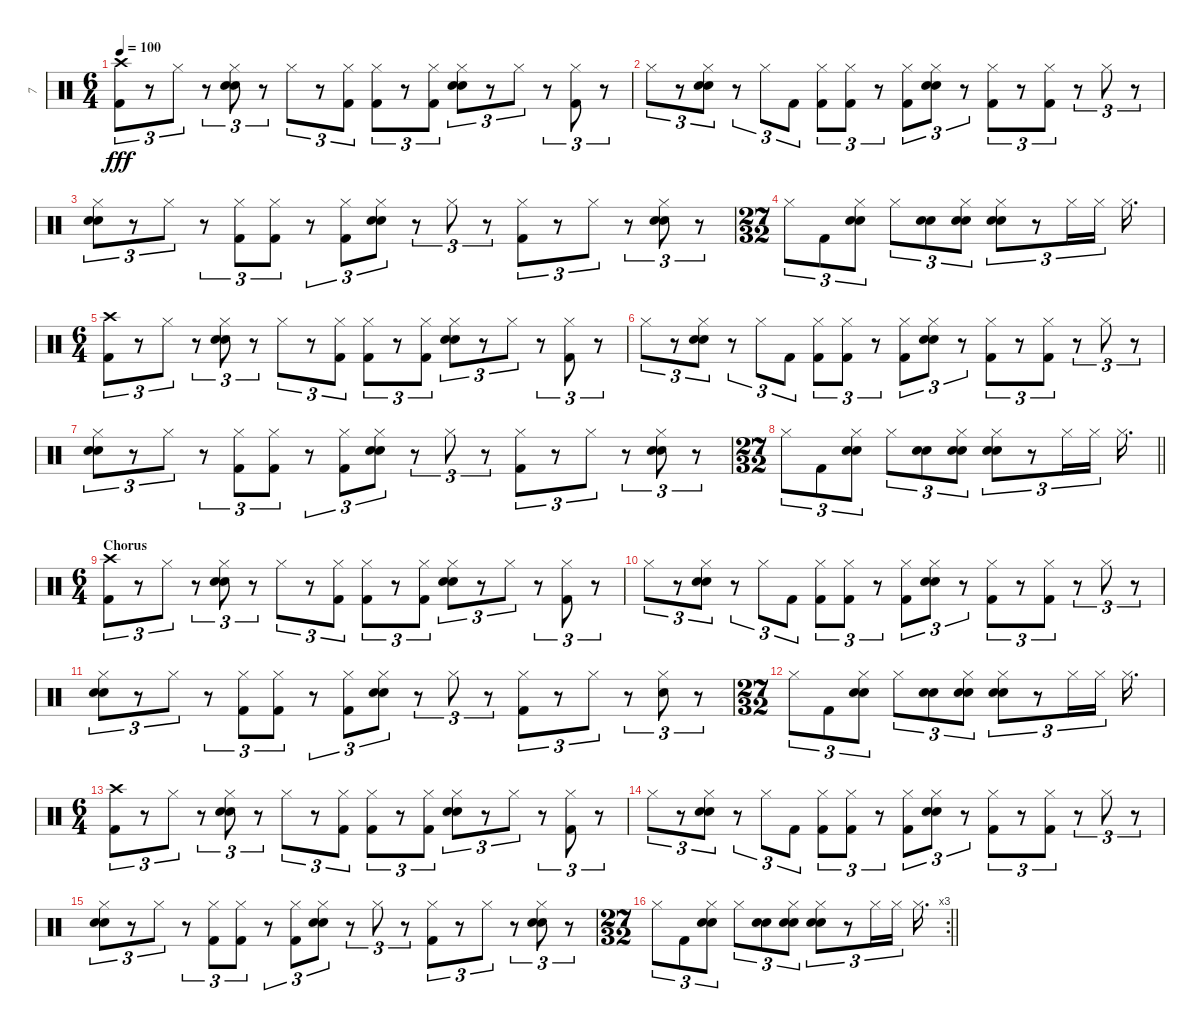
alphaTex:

\track ("7" "7") {instrument percussion}
\staff {score}
\articulation defaults
\ts (6 4)
\tempo 100
\clef neutral
\ks c
("Crash high (hit)" "Kick (hit) 2").8{tu (3 2) dy fff} r.8{tu (3 2)} "Hi-Hat (closed)".8{tu (3 2)} r.8{tu (3 2)} ("Hi-Hat (closed)" "Hand Clap (hit)" "Electric Snare (hit)").8{tu (3 2)} r.8{tu (3 2)} "Hi-Hat (closed)".8{tu (3 2)} r.8{tu (3 2)} ("Hi-Hat (closed)" "Kick (hit) 2").8{tu (3 2)} ("Hi-Hat (closed)" "Kick (hit) 2").8{tu (3 2)} r.8{tu (3 2)} ("Hi-Hat (closed)" "Kick (hit) 2").8{tu (3 2)} ("Hi-Hat (closed)" "Hand Clap (hit)" "Electric Snare (hit)").8{tu (3 2)} r.8{tu (3 2)} "Hi-Hat (closed)".8{tu (3 2)} r.8{tu (3 2)} ("Hi-Hat (closed)" "Kick (hit) 2").8{tu (3 2)} r.8{tu (3 2)} |
"Hi-Hat (closed)".8{tu (3 2)} r.8{tu (3 2)} ("Hi-Hat (closed)" "Hand Clap (hit)" "Electric Snare (hit)").8{tu (3 2)} r.8{tu (3 2)} "Hi-Hat (closed)".8{tu (3 2)} "Kick (hit) 2".8{tu (3 2)} ("Hi-Hat (closed)" "Kick (hit) 2").8{tu (3 2)} ("Hi-Hat (closed)" "Kick (hit) 2").8{tu (3 2)} r.8{tu (3 2)} ("Hi-Hat (closed)" "Kick (hit) 2").8{tu (3 2)} ("Hi-Hat (closed)" "Hand Clap (hit)" "Electric Snare (hit)").8{tu (3 2)} r.8{tu (3 2)} ("Hi-Hat (closed)" "Kick (hit) 2").8{tu (3 2)} r.8{tu (3 2)} ("Hi-Hat (closed)" "Kick (hit) 2").8{tu (3 2)} r.8{tu (3 2)} "Hi-Hat (closed)".8{tu (3 2)} r.8{tu (3 2)} |
("Hi-Hat (closed)" "Hand Clap (hit)" "Electric Snare (hit)").8{tu (3 2)} r.8{tu (3 2)} "Hi-Hat (closed)".8{tu (3 2)} r.8{tu (3 2)} ("Hi-Hat (closed)" "Kick (hit) 2").8{tu (3 2)} ("Hi-Hat (closed)" "Kick (hit) 2").8{tu (3 2)} r.8{tu (3 2)} ("Hi-Hat (closed)" "Kick (hit) 2").8{tu (3 2)} ("Hi-Hat (closed)" "Hand Clap (hit)" "Electric Snare (hit)").8{tu (3 2)} r.8{tu (3 2)} "Hi-Hat (closed)".8{tu (3 2)} r.8{tu (3 2)} ("Hi-Hat (closed)" "Kick (hit) 2").8{tu (3 2)} r.8{tu (3 2)} "Hi-Hat (closed)".8{tu (3 2)} r.8{tu (3 2)} ("Hi-Hat (closed)" "Hand Clap (hit)" "Electric Snare (hit)").8{tu (3 2)} r.8{tu (3 2)} |
\ts (27 32)
"Hi-Hat (closed)".8{tu (3 2)} "Kick (hit) 2".8{tu (3 2)} ("Hi-Hat (closed)" "Hand Clap (hit)" "Electric Snare (hit)").8{tu (3 2)} "Hi-Hat (closed)".8{tu (3 2)} ("Hand Clap (hit)" "Electric Snare (hit)").8{tu (3 2)} ("Hi-Hat (closed)" "Hand Clap (hit)" "Electric Snare (hit)").8{tu (3 2)} ("Hi-Hat (closed)" "Hand Clap (hit)" "Electric Snare (hit)").8{tu (3 2)} r.8{tu (3 2)} "Hi-Hat (closed)".16{tu (3 2)} "Hi-Hat (closed)".16{tu (3 2)} "Hi-Hat (closed)".16{d} |
\ts (6 4)
("Crash high (hit)" "Kick (hit) 2").8{tu (3 2)} r.8{tu (3 2)} "Hi-Hat (closed)".8{tu (3 2)} r.8{tu (3 2)} ("Hi-Hat (closed)" "Hand Clap (hit)" "Electric Snare (hit)").8{tu (3 2)} r.8{tu (3 2)} "Hi-Hat (closed)".8{tu (3 2)} r.8{tu (3 2)} ("Hi-Hat (closed)" "Kick (hit) 2").8{tu (3 2)} ("Hi-Hat (closed)" "Kick (hit) 2").8{tu (3 2)} r.8{tu (3 2)} ("Hi-Hat (closed)" "Kick (hit) 2").8{tu (3 2)} ("Hi-Hat (closed)" "Hand Clap (hit)" "Electric Snare (hit)").8{tu (3 2)} r.8{tu (3 2)} "Hi-Hat (closed)".8{tu (3 2)} r.8{tu (3 2)} ("Hi-Hat (closed)" "Kick (hit) 2").8{tu (3 2)} r.8{tu (3 2)} |
"Hi-Hat (closed)".8{tu (3 2)} r.8{tu (3 2)} ("Hi-Hat (closed)" "Hand Clap (hit)" "Electric Snare (hit)").8{tu (3 2)} r.8{tu (3 2)} "Hi-Hat (closed)".8{tu (3 2)} "Kick (hit) 2".8{tu (3 2)} ("Hi-Hat (closed)" "Kick (hit) 2").8{tu (3 2)} ("Hi-Hat (closed)" "Kick (hit) 2").8{tu (3 2)} r.8{tu (3 2)} ("Hi-Hat (closed)" "Kick (hit) 2").8{tu (3 2)} ("Hi-Hat (closed)" "Hand Clap (hit)" "Electric Snare (hit)").8{tu (3 2)} r.8{tu (3 2)} ("Hi-Hat (closed)" "Kick (hit) 2").8{tu (3 2)} r.8{tu (3 2)} ("Hi-Hat (closed)" "Kick (hit) 2").8{tu (3 2)} r.8{tu (3 2)} "Hi-Hat (closed)".8{tu (3 2)} r.8{tu (3 2)} |
("Hi-Hat (closed)" "Hand Clap (hit)" "Electric Snare (hit)").8{tu (3 2)} r.8{tu (3 2)} "Hi-Hat (closed)".8{tu (3 2)} r.8{tu (3 2)} ("Hi-Hat (closed)" "Kick (hit) 2").8{tu (3 2)} ("Hi-Hat (closed)" "Kick (hit) 2").8{tu (3 2)} r.8{tu (3 2)} ("Hi-Hat (closed)" "Kick (hit) 2").8{tu (3 2)} ("Hi-Hat (closed)" "Hand Clap (hit)" "Electric Snare (hit)").8{tu (3 2)} r.8{tu (3 2)} "Hi-Hat (closed)".8{tu (3 2)} r.8{tu (3 2)} ("Hi-Hat (closed)" "Kick (hit) 2").8{tu (3 2)} r.8{tu (3 2)} "Hi-Hat (closed)".8{tu (3 2)} r.8{tu (3 2)} ("Hi-Hat (closed)" "Hand Clap (hit)" "Electric Snare (hit)").8{tu (3 2)} r.8{tu (3 2)} |
\ts (27 32)
\barLineRight lightlight "Hi-Hat (closed)".8{tu (3 2)} "Kick (hit) 2".8{tu (3 2)}
("Hi-Hat (closed)" "Hand Clap (hit)" "Electric Snare (hit)").8{tu (3 2)} "Hi-Hat (closed)".8{tu (3 2)} ("Hand Clap (hit)" "Electric Snare (hit)").8{tu (3 2)} ("Hi-Hat (closed)" "Hand Clap (hit)" "Electric Snare (hit)").8{tu (3 2)} ("Hi-Hat (closed)" "Hand Clap (hit)" "Electric Snare (hit)").8{tu (3 2)} r.8{tu (3 2)} "Hi-Hat (closed)".16{tu (3 2)} "Hi-Hat (closed)".16{tu (3 2)} "Hi-Hat (closed)".16{d} |
\ts (6 4)
\section ("" "Chorus")
("Crash high (hit)" "Kick (hit) 2").8{tu (3 2)} r.8{tu (3 2)} "Hi-Hat (closed)".8{tu (3 2)} r.8{tu (3 2)} ("Hi-Hat (closed)" "Hand Clap (hit)" "Electric Snare (hit)").8{tu (3 2)} r.8{tu (3 2)} "Hi-Hat (closed)".8{tu (3 2)} r.8{tu (3 2)} ("Hi-Hat (closed)" "Kick (hit) 2").8{tu (3 2)} ("Hi-Hat (closed)" "Kick (hit) 2").8{tu (3 2)} r.8{tu (3 2)} ("Hi-Hat (closed)" "Kick (hit) 2").8{tu (3 2)} ("Hi-Hat (closed)" "Hand Clap (hit)" "Electric Snare (hit)").8{tu (3 2)} r.8{tu (3 2)} "Hi-Hat (closed)".8{tu (3 2)} r.8{tu (3 2)} ("Hi-Hat (closed)" "Kick (hit) 2").8{tu (3 2)} r.8{tu (3 2)} |
"Hi-Hat (closed)".8{tu (3 2)} r.8{tu (3 2)} ("Hi-Hat (closed)" "Hand Clap (hit)" "Electric Snare (hit)").8{tu (3 2)} r.8{tu (3 2)} "Hi-Hat (closed)".8{tu (3 2)} "Kick (hit) 2".8{tu (3 2)} ("Hi-Hat (closed)" "Kick (hit) 2").8{tu (3 2)} ("Hi-Hat (closed)" "Kick (hit) 2").8{tu (3 2)} r.8{tu (3 2)} ("Hi-Hat (closed)" "Kick (hit) 2").8{tu (3 2)} ("Hi-Hat (closed)" "Hand Clap (hit)" "Electric Snare (hit)").8{tu (3 2)} r.8{tu (3 2)} ("Hi-Hat (closed)" "Kick (hit) 2").8{tu (3 2)} r.8{tu (3 2)} ("Hi-Hat (closed)" "Kick (hit) 2").8{tu (3 2)} r.8{tu (3 2)} "Hi-Hat (closed)".8{tu (3 2)} r.8{tu (3 2)} |
("Hi-Hat (closed)" "Hand Clap (hit)" "Electric Snare (hit)").8{tu (3 2)} r.8{tu (3 2)} "Hi-Hat (closed)".8{tu (3 2)} r.8{tu (3 2)} ("Hi-Hat (closed)" "Kick (hit) 2").8{tu (3 2)} ("Hi-Hat (closed)" "Kick (hit) 2").8{tu (3 2)} r.8{tu (3 2)} ("Hi-Hat (closed)" "Kick (hit) 2").8{tu (3 2)} ("Hi-Hat (closed)" "Hand Clap (hit)" "Electric Snare (hit)").8{tu (3 2)} r.8{tu (3 2)} "Hi-Hat (closed)".8{tu (3 2)} r.8{tu (3 2)} ("Hi-Hat (closed)" "Kick (hit) 2").8{tu (3 2)} r.8{tu (3 2)} "Hi-Hat (closed)".8{tu (3 2)} r.8{tu (3 2)} ("Hi-Hat (closed)" "Hand Clap (hit)").8{tu (3 2)} r.8{tu (3 2)} |
\ts (27 32)
"Hi-Hat (closed)".8{tu (3 2)} "Kick (hit) 2".8{tu (3 2)} ("Hi-Hat (closed)" "Hand Clap (hit)" "Electric Snare (hit)").8{tu (3 2)} "Hi-Hat (closed)".8{tu (3 2)} ("Hand Clap (hit)" "Electric Snare (hit)").8{tu (3 2)} ("Hi-Hat (closed)" "Hand Clap (hit)" "Electric Snare (hit)").8{tu (3 2)} ("Hi-Hat (closed)" "Hand Clap (hit)" "Electric Snare (hit)").8{tu (3 2)} r.8{tu (3 2)} "Hi-Hat (closed)".16{tu (3 2)} "Hi-Hat (closed)".16{tu (3 2)} "Hi-Hat (closed)".16{d} |
\ts (6 4)
("Crash high (hit)" "Kick (hit) 2").8{tu (3 2)} r.8{tu (3 2)} "Hi-Hat (closed)".8{tu (3 2)} r.8{tu (3 2)} ("Hi-Hat (closed)" "Hand Clap (hit)" "Electric Snare (hit)").8{tu (3 2)} r.8{tu (3 2)} "Hi-Hat (closed)".8{tu (3 2)} r.8{tu (3 2)} ("Hi-Hat (closed)" "Kick (hit) 2").8{tu (3 2)} ("Hi-Hat (closed)" "Kick (hit) 2").8{tu (3 2)} r.8{tu (3 2)} ("Hi-Hat (closed)" "Kick (hit) 2").8{tu (3 2)} ("Hi-Hat (closed)" "Hand Clap (hit)" "Electric Snare (hit)").8{tu (3 2)} r.8{tu (3 2)} "Hi-Hat (closed)".8{tu (3 2)} r.8{tu (3 2)} ("Hi-Hat (closed)" "Kick (hit) 2").8{tu (3 2)} r.8{tu (3 2)} |
"Hi-Hat (closed)".8{tu (3 2)} r.8{tu (3 2)} ("Hi-Hat (closed)" "Hand Clap (hit)" "Electric Snare (hit)").8{tu (3 2)} r.8{tu (3 2)} "Hi-Hat (closed)".8{tu (3 2)} "Kick (hit) 2".8{tu (3 2)} ("Hi-Hat (closed)" "Kick (hit) 2").8{tu (3 2)} ("Hi-Hat (closed)" "Kick (hit) 2").8{tu (3 2)} r.8{tu (3 2)} ("Hi-Hat (closed)" "Kick (hit) 2").8{tu (3 2)} ("Hi-Hat (closed)" "Hand Clap (hit)" "Electric Snare (hit)").8{tu (3 2)} r.8{tu (3 2)} ("Hi-Hat (closed)" "Kick (hit) 2").8{tu (3 2)} r.8{tu (3 2)} ("Hi-Hat (closed)" "Kick (hit) 2").8{tu (3 2)} r.8{tu (3 2)} "Hi-Hat (closed)".8{tu (3 2)} r.8{tu (3 2)} |
("Hi-Hat (closed)" "Hand Clap (hit)" "Electric Snare (hit)").8{tu (3 2)} r.8{tu (3 2)} "Hi-Hat (closed)".8{tu (3 2)} r.8{tu (3 2)} ("Hi-Hat (closed)" "Kick (hit) 2").8{tu (3 2)} ("Hi-Hat (closed)" "Kick (hit) 2").8{tu (3 2)} r.8{tu (3 2)} ("Hi-Hat (closed)" "Kick (hit) 2").8{tu (3 2)} ("Hi-Hat (closed)" "Hand Clap (hit)" "Electric Snare (hit)").8{tu (3 2)} r.8{tu (3 2)} "Hi-Hat (closed)".8{tu (3 2)} r.8{tu (3 2)} ("Hi-Hat (closed)" "Kick (hit) 2").8{tu (3 2)} r.8{tu (3 2)} "Hi-Hat (closed)".8{tu (3 2)} r.8{tu (3 2)} ("Hi-Hat (closed)" "Hand Clap (hit)" "Electric Snare (hit)").8{tu (3 2)} r.8{tu (3 2)} |
\rc 3
\ts (27 32)
\barLineRight lightlight "Hi-Hat (closed)".8{tu (3 2)} "Kick (hit) 2".8{tu (3 2)}
("Hi-Hat (closed)" "Hand Clap (hit)" "Electric Snare (hit)").8{tu (3 2)} "Hi-Hat (closed)".8{tu (3 2)} ("Hand Clap (hit)" "Electric Snare (hit)").8{tu (3 2)} ("Hi-Hat (closed)" "Hand Clap (hit)" "Electric Snare (hit)").8{tu (3 2)} ("Hi-Hat (closed)" "Hand Clap (hit)" "Electric Snare (hit)").8{tu (3 2)} r.8{tu (3 2)} "Hi-Hat (closed)".16{tu (3 2)} "Hi-Hat (closed)".16{tu (3 2)} "Hi-Hat (closed)".16{d}
